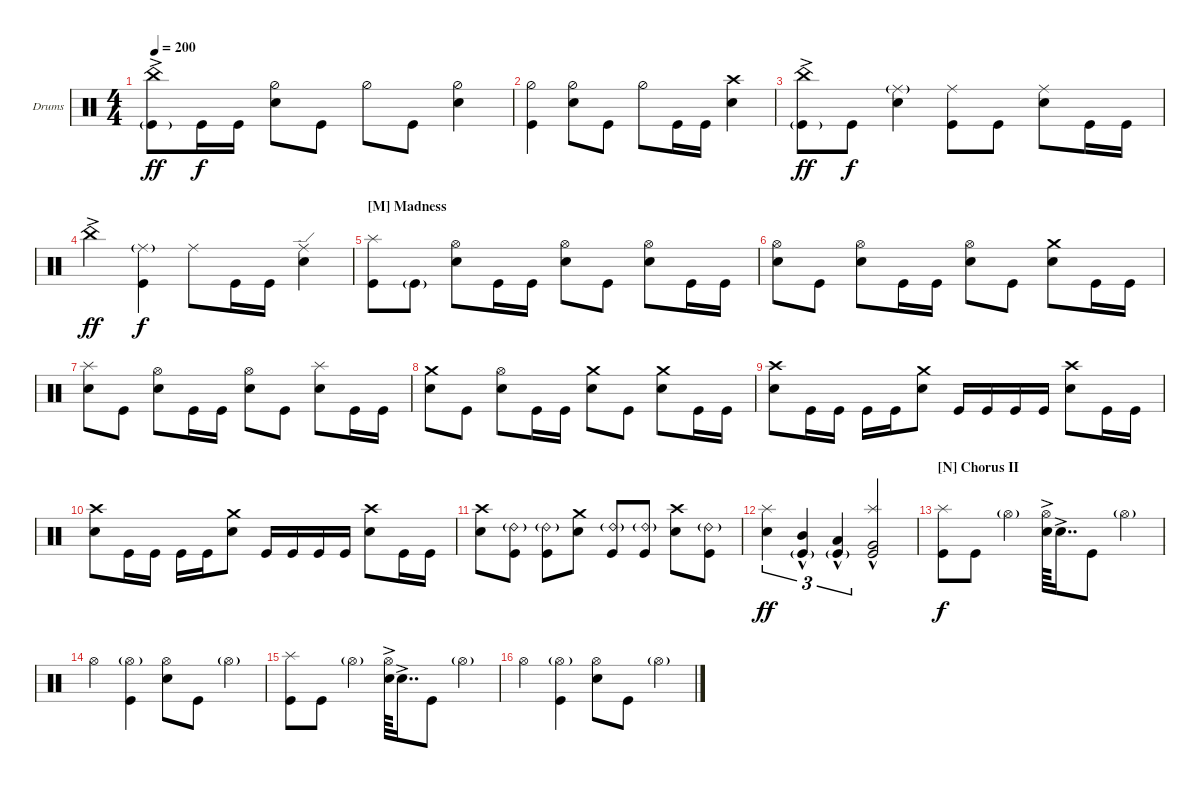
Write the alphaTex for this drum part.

\defaultSystemsLayout 4
\bracketExtendMode groupsimilarinstruments
\firstSystemTrackNameOrientation horizontal
\otherSystemsTrackNameOrientation horizontal
\track ("Drumkit" "Drums") {instrument percussion}
\staff {score}
\articulation defaults
\ts (4 4)
\tempo 200
\clef neutral
\ks c
("China (hit)"{ac} "Kick (hit)"{g}).8{dy ff} "Kick (hit)".16{dy f} "Kick (hit)".16 ("Snare (hit) 2" "Hi-Hat (half)").8 "Kick (hit)".8 "Hi-Hat (half)".8 "Kick (hit)".8 ("Snare (hit) 2" "Hi-Hat (half)").4 |
("Kick (hit)" "Hi-Hat (half)").4 ("Snare (hit) 2" "Hi-Hat (half)").8 "Kick (hit)".8 "Hi-Hat (half)".8 "Kick (hit)".16 "Kick (hit)".16 ("Snare (hit) 2" "Crash high (hit)").4 |
("China (hit)"{ac} "Kick (hit)"{g}).8{dy ff} "Kick (hit)".8{dy f} ("Snare (hit) 2" "Ride (middle)"{g}).4 ("Kick (hit)" "Ride (middle)").8 "Kick (hit)".8 ("Snare (hit) 2" "Ride (middle)").8 "Kick (hit)".16 "Kick (hit)".16 |
"China (hit)"{ac}.4{dy ff} ("Kick (hit)" "Ride (middle)"{g}).4{dy f} "Ride (middle)".8 "Kick (hit)".16 "Kick (hit)".16 ("Snare (hit) 2" "Ride (edge)").4 |
\section ("M" "Madness")
("Splash (hit)" "Kick (hit)").8 "Kick (hit)"{g}.8 ("Snare (hit) 2" "Hi-Hat (open)").8 "Kick (hit)".16 "Kick (hit)".16 ("Snare (hit) 2" "Hi-Hat (open)").8 "Kick (hit)".8 ("Snare (hit) 2" "Hi-Hat (open)").8 "Kick (hit)".16 "Kick (hit)".16 |
("Snare (hit) 2" "Hi-Hat (open)").8 "Kick (hit)".8 ("Snare (hit) 2" "Hi-Hat (open)").8 "Kick (hit)".16 "Kick (hit)".16 ("Snare (hit) 2" "Hi-Hat (open)").8 "Kick (hit)".8 ("Snare (hit) 2" "Crash medium (hit)").8 "Kick (hit)".16 "Kick (hit)".16 |
("Snare (hit) 2" "Splash (hit)").8 "Kick (hit)".8 ("Snare (hit) 2" "Hi-Hat (open)").8 "Kick (hit)".16 "Kick (hit)".16 ("Snare (hit) 2" "Hi-Hat (open)").8 "Kick (hit)".8 ("Snare (hit) 2" "Splash (hit)").8 "Kick (hit)".16 "Kick (hit)".16 |
("Snare (hit) 2" "Crash medium (hit)").8 "Kick (hit)".8 ("Snare (hit) 2" "Hi-Hat (open)").8 "Kick (hit)".16 "Kick (hit)".16 ("Snare (hit) 2" "Crash medium (hit)").8 "Kick (hit)".8 ("Snare (hit) 2" "Crash medium (hit)").8 "Kick (hit)".16 "Kick (hit)".16 |
("Snare (hit) 2" "Crash high (hit)").8 "Kick (hit)".16 "Kick (hit)".16 "Kick (hit)".16 "Kick (hit)".16 ("Snare (hit) 2" "Crash medium (hit)").8 "Kick (hit)".16 "Kick (hit)".16 "Kick (hit)".16 "Kick (hit)".16 ("Snare (hit) 2" "Crash high (hit)").8 "Kick (hit)".16 "Kick (hit)".16 |
("Snare (hit) 2" "Crash high (hit)").8 "Kick (hit)".16 "Kick (hit)".16 "Kick (hit)".16 "Kick (hit)".16 ("Snare (hit) 2" "Crash medium (hit)").8 "Kick (hit)".16 "Kick (hit)".16 "Kick (hit)".16 "Kick (hit)".16 ("Snare (hit) 2" "Crash high (hit)").8 "Kick (hit)".16 "Kick (hit)".16 |
("Snare (hit) 2" "Crash high (hit)").8 ("Kick (hit)" "Ride (bell) 2"{g}).8 ("Kick (hit)" "Ride (bell) 2"{g}).8 ("Snare (hit) 2" "Crash medium (hit)").8 ("Kick (hit)" "Ride (bell) 2"{g}).8 ("Kick (hit)" "Ride (bell) 2"{g}).8 ("Snare (hit) 2" "Crash high (hit)").8 ("Kick (hit)" "Ride (bell) 2"{g}).8 |
("Snare (hit) 2" "Splash (hit)").4{tu (3 2) dy ff} ("Kick (hit)"{g} "Mid Tom (hit)"{hac}).4{tu (3 2)} ("Kick (hit)"{g} "Low Tom (hit)"{hac}).4{tu (3 2)} ("Kick (hit)" "Splash (hit)" "Very Low Tom (hit)"{hac}).2 |
\section ("N" "Chorus II")
("Kick (hit)" "Splash (hit)").8{dy f} "Kick (hit)".8 "Hi-Hat (open)"{g}.4 ("Hi-Hat (open)" "Snare (hit) 2"{ac}).64 "Snare (hit) 2"{ac}.16{dd} "Kick (hit)".8 "Hi-Hat (open)"{g}.4 |
"Hi-Hat (open)".4 ("Hi-Hat (open)"{g} "Kick (hit)").4 ("Hi-Hat (open)" "Snare (hit) 2").8 "Kick (hit)".8 "Hi-Hat (open)"{g}.4 |
("Kick (hit)" "Splash (hit)").8 "Kick (hit)".8 "Hi-Hat (open)"{g}.4 ("Hi-Hat (open)" "Snare (hit) 2"{ac}).64 "Snare (hit) 2"{ac}.16{dd} "Kick (hit)".8 "Hi-Hat (open)"{g}.4 |
"Hi-Hat (open)".4 ("Hi-Hat (open)"{g} "Kick (hit)").4 ("Hi-Hat (open)" "Snare (hit) 2").8 "Kick (hit)".8 "Hi-Hat (open)"{g}.4
